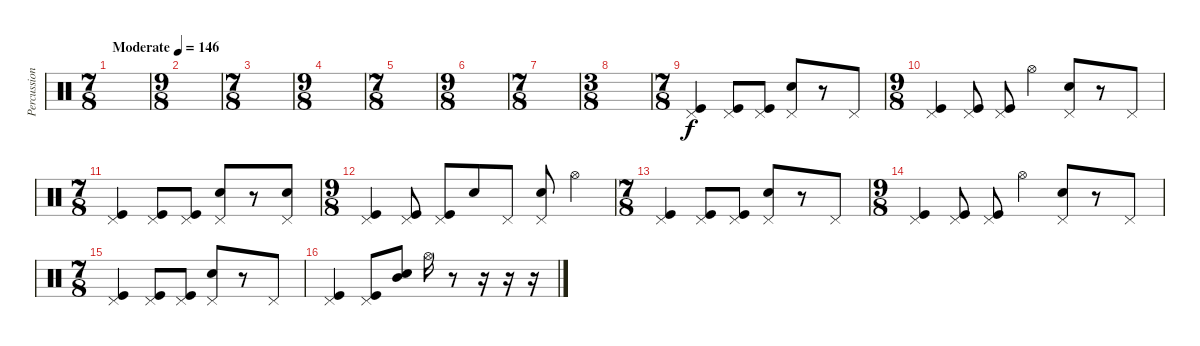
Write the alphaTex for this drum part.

\track ("Percussion" "Percussion") {instrument percussion}
\staff {score}
\articulation defaults
\ts (7 8)
\tempo (146 "Moderate")
\clef neutral
\ks c
|
\ts (9 8)
|
\ts (7 8)
|
\ts (9 8)
|
\ts (7 8)
|
\ts (9 8)
|
\ts (7 8)
|
\ts (3 8)
|
\ts (7 8)
("Pedal Hi-Hat (hit)" "Kick (hit)").4 ("Pedal Hi-Hat (hit)" "Kick (hit)").8 ("Pedal Hi-Hat (hit)" "Kick (hit)").8 ("Pedal Hi-Hat (hit)" "Snare (hit) 2").8 r.8 "Pedal Hi-Hat (hit)".8 |
\ts (9 8)
("Pedal Hi-Hat (hit)" "Kick (hit)").4 ("Pedal Hi-Hat (hit)" "Kick (hit)").8 ("Pedal Hi-Hat (hit)" "Kick (hit)").8 "Hi-Hat (open)".4 ("Pedal Hi-Hat (hit)" "Snare (hit) 2").8 r.8 "Pedal Hi-Hat (hit)".8 |
\ts (7 8)
("Pedal Hi-Hat (hit)" "Kick (hit)").4 ("Pedal Hi-Hat (hit)" "Kick (hit)").8 ("Pedal Hi-Hat (hit)" "Kick (hit)").8 ("Pedal Hi-Hat (hit)" "Snare (hit) 2").8 r.8 ("Pedal Hi-Hat (hit)" "Snare (hit) 2").8 |
\ts (9 8)
("Pedal Hi-Hat (hit)" "Kick (hit)").4 ("Pedal Hi-Hat (hit)" "Kick (hit)").8 ("Pedal Hi-Hat (hit)" "Kick (hit)").8 "Snare (hit) 2".8 "Pedal Hi-Hat (hit)".8 ("Pedal Hi-Hat (hit)" "Snare (hit) 2").8 "Hi-Hat (open)".4 |
\ts (7 8)
("Pedal Hi-Hat (hit)" "Kick (hit)").4 ("Pedal Hi-Hat (hit)" "Kick (hit)").8 ("Pedal Hi-Hat (hit)" "Kick (hit)").8 ("Pedal Hi-Hat (hit)" "Snare (hit) 2").8 r.8 "Pedal Hi-Hat (hit)".8 |
\ts (9 8)
("Pedal Hi-Hat (hit)" "Kick (hit)").4 ("Pedal Hi-Hat (hit)" "Kick (hit)").8 ("Pedal Hi-Hat (hit)" "Kick (hit)").8 "Hi-Hat (open)".4 ("Pedal Hi-Hat (hit)" "Snare (hit) 2").8 r.8 "Pedal Hi-Hat (hit)".8 |
\ts (7 8)
("Pedal Hi-Hat (hit)" "Kick (hit)").4 ("Pedal Hi-Hat (hit)" "Kick (hit)").8 ("Pedal Hi-Hat (hit)" "Kick (hit)").8 ("Pedal Hi-Hat (hit)" "Snare (hit) 2").8 r.8 "Pedal Hi-Hat (hit)".8 |
("Pedal Hi-Hat (hit)" "Kick (hit)").4 ("Pedal Hi-Hat (hit)" "Kick (hit)").8 ("Mid Tom (hit)" "Snare (hit) 2").8 "Hi-Hat (open)".16 r.8 r.16 r.16 r.16
